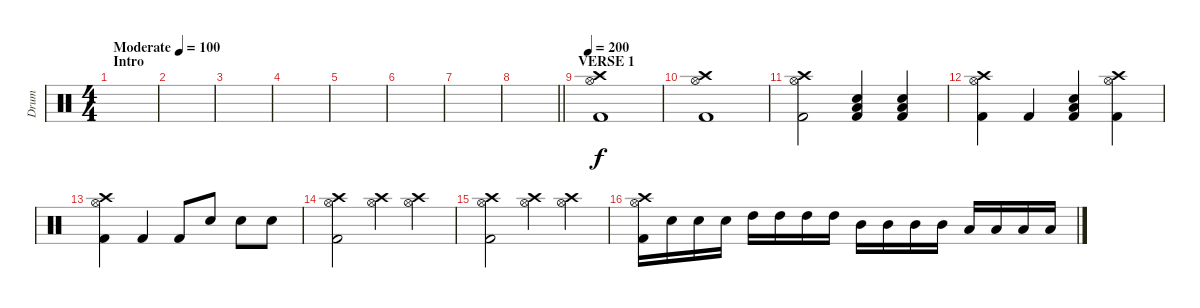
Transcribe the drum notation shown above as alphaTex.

\track ("Drum" "Drum") {instrument percussion}
\staff {score}
\articulation defaults
\ts (4 4)
\section ("" "Intro")
\tempo (100 "Moderate")
\clef neutral
\ks c
|
|
|
|
|
|
|
\barLineRight lightlight
|
\section ("" "VERSE 1")
\tempo 200
("Crash high (hit)" "Hi-Hat (open)" "Kick (hit) 2").1 |
("Crash high (hit)" "Hi-Hat (open)" "Kick (hit) 2").1 |
("Crash high (hit)" "Hi-Hat (open)" "Kick (hit) 2").2 ("Low Tom (hit)" "Snare (hit) 2" "Kick (hit) 2").4 ("Low Tom (hit)" "Snare (hit) 2" "Kick (hit) 2").4 |
("Crash high (hit)" "Hi-Hat (open)" "Kick (hit) 2").4 "Kick (hit) 2".4 ("Low Tom (hit)" "Snare (hit) 2" "Kick (hit) 2").4 ("Crash high (hit)" "Hi-Hat (open)" "Kick (hit) 2").4 |
("Crash high (hit)" "Hi-Hat (open)" "Kick (hit) 2").4 "Kick (hit) 2".4 "Kick (hit) 2".8 "Snare (hit) 2".8 "Snare (hit) 2".8 "Snare (hit) 2".8 |
("Crash high (hit)" "Hi-Hat (open)" "Kick (hit) 2").2 ("Crash high (hit)" "Hi-Hat (open)").4 ("Crash high (hit)" "Hi-Hat (open)").4 |
("Crash high (hit)" "Hi-Hat (open)" "Kick (hit) 2").2 ("Crash high (hit)" "Hi-Hat (open)").4 ("Crash high (hit)" "Hi-Hat (open)").4 |
("Crash high (hit)" "Hi-Hat (open)" "Kick (hit) 2").16 "Snare (hit) 2".16 "Snare (hit) 2".16 "Snare (hit) 2".16 "High Tom (hit)".16 "High Tom (hit)".16 "High Tom (hit)".16 "High Tom (hit)".16 "Mid Tom (hit)".16 "Mid Tom (hit)".16 "Mid Tom (hit)".16 "Mid Tom (hit)".16 "Low Tom (hit)".16 "Low Tom (hit)".16 "Low Tom (hit)".16 "Low Tom (hit)".16
